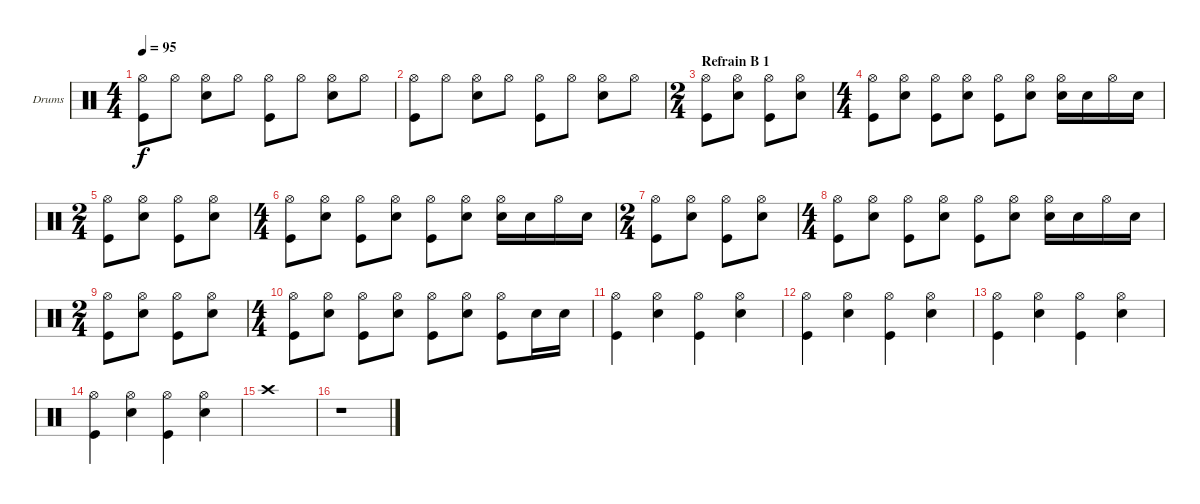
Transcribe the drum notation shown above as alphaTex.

\bracketExtendMode groupsimilarinstruments
\firstSystemTrackNameOrientation horizontal
\otherSystemsTrackNameOrientation horizontal
\chordDiagramsInScore
\track ("Drumkit" "Drums") {instrument percussion}
\staff {score}
\articulation defaults
\ts (4 4)
\tempo 95
\clef neutral
\ks c
("Hi-Hat (open)" "Kick (hit)").8{dy f} "Hi-Hat (open)".8 ("Hi-Hat (open)" "Snare (hit) 2").8 "Hi-Hat (open)".8 ("Hi-Hat (open)" "Kick (hit)").8 "Hi-Hat (open)".8 ("Hi-Hat (open)" "Snare (hit) 2").8 "Hi-Hat (open)".8 |
("Hi-Hat (open)" "Kick (hit)").8 "Hi-Hat (open)".8 ("Hi-Hat (open)" "Snare (hit) 2").8 "Hi-Hat (open)".8 ("Hi-Hat (open)" "Kick (hit)").8 "Hi-Hat (open)".8 ("Hi-Hat (open)" "Snare (hit) 2").8 "Hi-Hat (open)".8 |
\ts (2 4)
\section ("" "Refrain B 1")
("Hi-Hat (open)" "Kick (hit)").8 ("Hi-Hat (open)" "Snare (hit) 2").8 ("Hi-Hat (open)" "Kick (hit)").8 ("Hi-Hat (open)" "Snare (hit) 2").8 |
\ts (4 4)
("Hi-Hat (open)" "Kick (hit)").8 ("Hi-Hat (open)" "Snare (hit) 2").8 ("Hi-Hat (open)" "Kick (hit)").8 ("Hi-Hat (open)" "Snare (hit) 2").8 ("Hi-Hat (open)" "Kick (hit)").8 ("Hi-Hat (open)" "Snare (hit) 2").8 ("Hi-Hat (open)" "Snare (hit) 2").16 "Snare (hit) 2".16 "Hi-Hat (open)".16 "Snare (hit) 2".16 |
\ts (2 4)
("Hi-Hat (open)" "Kick (hit)").8 ("Hi-Hat (open)" "Snare (hit) 2").8 ("Hi-Hat (open)" "Kick (hit)").8 ("Hi-Hat (open)" "Snare (hit) 2").8 |
\ts (4 4)
("Hi-Hat (open)" "Kick (hit)").8 ("Hi-Hat (open)" "Snare (hit) 2").8 ("Hi-Hat (open)" "Kick (hit)").8 ("Hi-Hat (open)" "Snare (hit) 2").8 ("Hi-Hat (open)" "Kick (hit)").8 ("Hi-Hat (open)" "Snare (hit) 2").8 ("Hi-Hat (open)" "Snare (hit) 2").16 "Snare (hit) 2".16 "Hi-Hat (open)".16 "Snare (hit) 2".16 |
\ts (2 4)
("Hi-Hat (open)" "Kick (hit)").8 ("Hi-Hat (open)" "Snare (hit) 2").8 ("Hi-Hat (open)" "Kick (hit)").8 ("Hi-Hat (open)" "Snare (hit) 2").8 |
\ts (4 4)
("Hi-Hat (open)" "Kick (hit)").8 ("Hi-Hat (open)" "Snare (hit) 2").8 ("Hi-Hat (open)" "Kick (hit)").8 ("Hi-Hat (open)" "Snare (hit) 2").8 ("Hi-Hat (open)" "Kick (hit)").8 ("Hi-Hat (open)" "Snare (hit) 2").8 ("Hi-Hat (open)" "Snare (hit) 2").16 "Snare (hit) 2".16 "Hi-Hat (open)".16 "Snare (hit) 2".16 |
\ts (2 4)
("Hi-Hat (open)" "Kick (hit)").8 ("Hi-Hat (open)" "Snare (hit) 2").8 ("Hi-Hat (open)" "Kick (hit)").8 ("Hi-Hat (open)" "Snare (hit) 2").8 |
\ts (4 4)
("Hi-Hat (open)" "Kick (hit)").8 ("Hi-Hat (open)" "Snare (hit) 2").8 ("Hi-Hat (open)" "Kick (hit)").8 ("Hi-Hat (open)" "Snare (hit) 2").8 ("Hi-Hat (open)" "Kick (hit)").8 ("Hi-Hat (open)" "Snare (hit) 2").8 ("Hi-Hat (open)" "Kick (hit)").8 "Snare (hit) 2".16 "Snare (hit) 2".16 |
("Hi-Hat (open)" "Kick (hit)").4 ("Hi-Hat (open)" "Snare (hit) 2").4 ("Hi-Hat (open)" "Kick (hit)").4 ("Hi-Hat (open)" "Snare (hit) 2").4 |
("Hi-Hat (open)" "Kick (hit)").4 ("Hi-Hat (open)" "Snare (hit) 2").4 ("Hi-Hat (open)" "Kick (hit)").4 ("Hi-Hat (open)" "Snare (hit) 2").4 |
("Hi-Hat (open)" "Kick (hit)").4 ("Hi-Hat (open)" "Snare (hit) 2").4 ("Hi-Hat (open)" "Kick (hit)").4 ("Hi-Hat (open)" "Snare (hit) 2").4 |
("Hi-Hat (open)" "Kick (hit)").4 ("Hi-Hat (open)" "Snare (hit) 2").4 ("Hi-Hat (open)" "Kick (hit)").4 ("Hi-Hat (open)" "Snare (hit) 2").4 |
"Crash high (hit)".1 |
r.1
